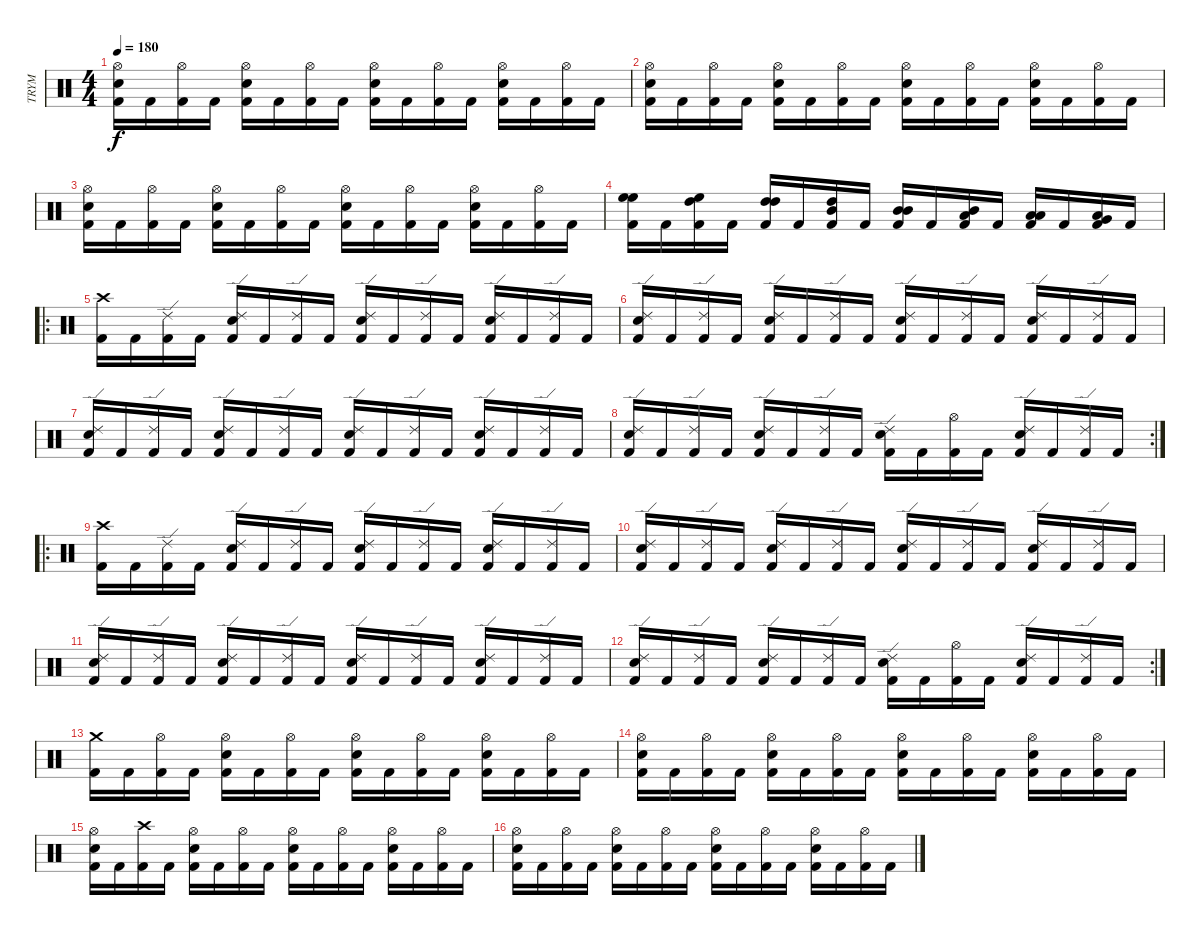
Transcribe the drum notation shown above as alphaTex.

\track ("TRYM" "TRYM") {instrument percussion}
\staff {score}
\articulation defaults
\ts (4 4)
\tempo 180
\clef neutral
\ks c
("Kick (hit) 2" "Hi-Hat (open)" "Electric Snare (hit)").16{dy f} "Kick (hit) 2".16 ("Kick (hit) 2" "Hi-Hat (open)").16 "Kick (hit) 2".16 ("Kick (hit) 2" "Hi-Hat (open)" "Electric Snare (hit)").16 "Kick (hit) 2".16 ("Kick (hit) 2" "Hi-Hat (open)").16 "Kick (hit) 2".16 ("Kick (hit) 2" "Hi-Hat (open)" "Electric Snare (hit)").16 "Kick (hit) 2".16 ("Kick (hit) 2" "Hi-Hat (open)").16 "Kick (hit) 2".16 ("Kick (hit) 2" "Hi-Hat (open)" "Electric Snare (hit)").16 "Kick (hit) 2".16 ("Kick (hit) 2" "Hi-Hat (open)").16 "Kick (hit) 2".16 |
("Kick (hit) 2" "Hi-Hat (open)" "Electric Snare (hit)").16 "Kick (hit) 2".16 ("Kick (hit) 2" "Hi-Hat (open)").16 "Kick (hit) 2".16 ("Kick (hit) 2" "Hi-Hat (open)" "Electric Snare (hit)").16 "Kick (hit) 2".16 ("Kick (hit) 2" "Hi-Hat (open)").16 "Kick (hit) 2".16 ("Kick (hit) 2" "Hi-Hat (open)" "Electric Snare (hit)").16 "Kick (hit) 2".16 ("Kick (hit) 2" "Hi-Hat (open)").16 "Kick (hit) 2".16 ("Kick (hit) 2" "Hi-Hat (open)" "Electric Snare (hit)").16 "Kick (hit) 2".16 ("Kick (hit) 2" "Hi-Hat (open)").16 "Kick (hit) 2".16 |
("Kick (hit) 2" "Hi-Hat (open)" "Electric Snare (hit)").16 "Kick (hit) 2".16 ("Kick (hit) 2" "Hi-Hat (open)").16 "Kick (hit) 2".16 ("Kick (hit) 2" "Hi-Hat (open)" "Electric Snare (hit)").16 "Kick (hit) 2".16 ("Kick (hit) 2" "Hi-Hat (open)").16 "Kick (hit) 2".16 ("Kick (hit) 2" "Hi-Hat (open)" "Electric Snare (hit)").16 "Kick (hit) 2".16 ("Kick (hit) 2" "Hi-Hat (open)").16 "Kick (hit) 2".16 ("Kick (hit) 2" "Hi-Hat (open)" "Electric Snare (hit)").16 "Kick (hit) 2".16 ("Kick (hit) 2" "Hi-Hat (open)").16 "Kick (hit) 2".16 |
("Kick (hit) 2" "High Floor Tom (hit)" "High Floor Tom (hit)").16 "Kick (hit) 2".16 ("Kick (hit) 2" "High Tom (hit)" "High Floor Tom (hit)").16 "Kick (hit) 2".16 ("Kick (hit) 2" "High Tom (hit)" "High Tom (hit)").16 "Kick (hit) 2".16 ("Kick (hit) 2" "Mid Tom (hit)" "High Tom (hit)").16 "Kick (hit) 2".16 ("Kick (hit) 2" "Mid Tom (hit)" "Mid Tom (hit)").16 "Kick (hit) 2".16 ("Kick (hit) 2" "Low Tom (hit)" "Mid Tom (hit)").16 "Kick (hit) 2".16 ("Kick (hit) 2" "Low Tom (hit)" "Low Tom (hit)").16 "Kick (hit) 2".16 ("Kick (hit) 2" "Very Low Tom (hit)" "Low Tom (hit)").16 "Kick (hit) 2".16 |
\ro
("Kick (hit) 2" "Crash high (hit)").16 "Kick (hit) 2".16 ("Kick (hit) 2" "Ride (edge) 2").16 "Kick (hit) 2".16 ("Kick (hit) 2" "Ride (edge) 2" "Electric Snare (hit)").16 "Kick (hit) 2".16 ("Kick (hit) 2" "Ride (edge) 2").16 "Kick (hit) 2".16 ("Kick (hit) 2" "Ride (edge) 2" "Electric Snare (hit)").16 "Kick (hit) 2".16 ("Kick (hit) 2" "Ride (edge) 2").16 "Kick (hit) 2".16 ("Kick (hit) 2" "Ride (edge) 2" "Electric Snare (hit)").16 "Kick (hit) 2".16 ("Kick (hit) 2" "Ride (edge) 2").16 "Kick (hit) 2".16 |
("Kick (hit) 2" "Ride (edge) 2" "Electric Snare (hit)").16 "Kick (hit) 2".16 ("Kick (hit) 2" "Ride (edge) 2").16 "Kick (hit) 2".16 ("Kick (hit) 2" "Ride (edge) 2" "Electric Snare (hit)").16 "Kick (hit) 2".16 ("Kick (hit) 2" "Ride (edge) 2").16 "Kick (hit) 2".16 ("Kick (hit) 2" "Ride (edge) 2" "Electric Snare (hit)").16 "Kick (hit) 2".16 ("Kick (hit) 2" "Ride (edge) 2").16 "Kick (hit) 2".16 ("Kick (hit) 2" "Ride (edge) 2" "Electric Snare (hit)").16 "Kick (hit) 2".16 ("Kick (hit) 2" "Ride (edge) 2").16 "Kick (hit) 2".16 |
("Kick (hit) 2" "Ride (edge) 2" "Electric Snare (hit)").16 "Kick (hit) 2".16 ("Kick (hit) 2" "Ride (edge) 2").16 "Kick (hit) 2".16 ("Kick (hit) 2" "Ride (edge) 2" "Electric Snare (hit)").16 "Kick (hit) 2".16 ("Kick (hit) 2" "Ride (edge) 2").16 "Kick (hit) 2".16 ("Kick (hit) 2" "Ride (edge) 2" "Electric Snare (hit)").16 "Kick (hit) 2".16 ("Kick (hit) 2" "Ride (edge) 2").16 "Kick (hit) 2".16 ("Kick (hit) 2" "Ride (edge) 2" "Electric Snare (hit)").16 "Kick (hit) 2".16 ("Kick (hit) 2" "Ride (edge) 2").16 "Kick (hit) 2".16 |
\rc 2
("Kick (hit) 2" "Ride (edge) 2" "Electric Snare (hit)").16 "Kick (hit) 2".16 ("Kick (hit) 2" "Ride (edge) 2").16 "Kick (hit) 2".16 ("Kick (hit) 2" "Ride (edge) 2" "Electric Snare (hit)").16 "Kick (hit) 2".16 ("Kick (hit) 2" "Ride (edge) 2").16 "Kick (hit) 2".16 ("Kick (hit) 2" "Ride (edge) 2" "Electric Snare (hit)").16 "Kick (hit) 2".16 ("Kick (hit) 2" "Hi-Hat (open)").16 "Kick (hit) 2".16 ("Kick (hit) 2" "Ride (edge) 2" "Electric Snare (hit)").16 "Kick (hit) 2".16 ("Kick (hit) 2" "Ride (edge) 2").16 "Kick (hit) 2".16 |
\ro
("Kick (hit) 2" "Crash high (hit)").16 "Kick (hit) 2".16 ("Kick (hit) 2" "Ride (edge) 2").16 "Kick (hit) 2".16 ("Kick (hit) 2" "Ride (edge) 2" "Electric Snare (hit)").16 "Kick (hit) 2".16 ("Kick (hit) 2" "Ride (edge) 2").16 "Kick (hit) 2".16 ("Kick (hit) 2" "Ride (edge) 2" "Electric Snare (hit)").16 "Kick (hit) 2".16 ("Kick (hit) 2" "Ride (edge) 2").16 "Kick (hit) 2".16 ("Kick (hit) 2" "Ride (edge) 2" "Electric Snare (hit)").16 "Kick (hit) 2".16 ("Kick (hit) 2" "Ride (edge) 2").16 "Kick (hit) 2".16 |
("Kick (hit) 2" "Ride (edge) 2" "Electric Snare (hit)").16 "Kick (hit) 2".16 ("Kick (hit) 2" "Ride (edge) 2").16 "Kick (hit) 2".16 ("Kick (hit) 2" "Ride (edge) 2" "Electric Snare (hit)").16 "Kick (hit) 2".16 ("Kick (hit) 2" "Ride (edge) 2").16 "Kick (hit) 2".16 ("Kick (hit) 2" "Ride (edge) 2" "Electric Snare (hit)").16 "Kick (hit) 2".16 ("Kick (hit) 2" "Ride (edge) 2").16 "Kick (hit) 2".16 ("Kick (hit) 2" "Ride (edge) 2" "Electric Snare (hit)").16 "Kick (hit) 2".16 ("Kick (hit) 2" "Ride (edge) 2").16 "Kick (hit) 2".16 |
("Kick (hit) 2" "Ride (edge) 2" "Electric Snare (hit)").16 "Kick (hit) 2".16 ("Kick (hit) 2" "Ride (edge) 2").16 "Kick (hit) 2".16 ("Kick (hit) 2" "Ride (edge) 2" "Electric Snare (hit)").16 "Kick (hit) 2".16 ("Kick (hit) 2" "Ride (edge) 2").16 "Kick (hit) 2".16 ("Kick (hit) 2" "Ride (edge) 2" "Electric Snare (hit)").16 "Kick (hit) 2".16 ("Kick (hit) 2" "Ride (edge) 2").16 "Kick (hit) 2".16 ("Kick (hit) 2" "Ride (edge) 2" "Electric Snare (hit)").16 "Kick (hit) 2".16 ("Kick (hit) 2" "Ride (edge) 2").16 "Kick (hit) 2".16 |
\rc 2
("Kick (hit) 2" "Ride (edge) 2" "Electric Snare (hit)").16 "Kick (hit) 2".16 ("Kick (hit) 2" "Ride (edge) 2").16 "Kick (hit) 2".16 ("Kick (hit) 2" "Ride (edge) 2" "Electric Snare (hit)").16 "Kick (hit) 2".16 ("Kick (hit) 2" "Ride (edge) 2").16 "Kick (hit) 2".16 ("Kick (hit) 2" "Ride (edge) 2" "Electric Snare (hit)").16 "Kick (hit) 2".16 ("Kick (hit) 2" "Hi-Hat (open)").16 "Kick (hit) 2".16 ("Kick (hit) 2" "Ride (edge) 2" "Electric Snare (hit)").16 "Kick (hit) 2".16 ("Kick (hit) 2" "Ride (edge) 2").16 "Kick (hit) 2".16 |
("Kick (hit) 2" "Crash medium (hit)").16 "Kick (hit) 2".16 ("Kick (hit) 2" "Hi-Hat (open)").16 "Kick (hit) 2".16 ("Kick (hit) 2" "Hi-Hat (open)" "Electric Snare (hit)").16 "Kick (hit) 2".16 ("Kick (hit) 2" "Hi-Hat (open)").16 "Kick (hit) 2".16 ("Kick (hit) 2" "Hi-Hat (open)" "Electric Snare (hit)").16 "Kick (hit) 2".16 ("Kick (hit) 2" "Hi-Hat (open)").16 "Kick (hit) 2".16 ("Kick (hit) 2" "Hi-Hat (open)" "Electric Snare (hit)").16 "Kick (hit) 2".16 ("Kick (hit) 2" "Hi-Hat (open)").16 "Kick (hit) 2".16 |
("Kick (hit) 2" "Hi-Hat (open)" "Electric Snare (hit)").16 "Kick (hit) 2".16 ("Kick (hit) 2" "Hi-Hat (open)").16 "Kick (hit) 2".16 ("Kick (hit) 2" "Hi-Hat (open)" "Electric Snare (hit)").16 "Kick (hit) 2".16 ("Kick (hit) 2" "Hi-Hat (open)").16 "Kick (hit) 2".16 ("Kick (hit) 2" "Hi-Hat (open)" "Electric Snare (hit)").16 "Kick (hit) 2".16 ("Kick (hit) 2" "Hi-Hat (open)").16 "Kick (hit) 2".16 ("Kick (hit) 2" "Hi-Hat (open)" "Electric Snare (hit)").16 "Kick (hit) 2".16 ("Kick (hit) 2" "Hi-Hat (open)").16 "Kick (hit) 2".16 |
("Kick (hit) 2" "Hi-Hat (open)" "Electric Snare (hit)").16 "Kick (hit) 2".16 ("Kick (hit) 2" "Crash high (hit)").16 "Kick (hit) 2".16 ("Kick (hit) 2" "Hi-Hat (open)" "Electric Snare (hit)").16 "Kick (hit) 2".16 ("Kick (hit) 2" "Hi-Hat (open)").16 "Kick (hit) 2".16 ("Kick (hit) 2" "Hi-Hat (open)" "Electric Snare (hit)").16 "Kick (hit) 2".16 ("Kick (hit) 2" "Hi-Hat (open)").16 "Kick (hit) 2".16 ("Kick (hit) 2" "Hi-Hat (open)" "Electric Snare (hit)").16 "Kick (hit) 2".16 ("Kick (hit) 2" "Hi-Hat (open)").16 "Kick (hit) 2".16 |
("Kick (hit) 2" "Hi-Hat (open)" "Electric Snare (hit)").16 "Kick (hit) 2".16 ("Kick (hit) 2" "Hi-Hat (open)").16 "Kick (hit) 2".16 ("Kick (hit) 2" "Hi-Hat (open)" "Electric Snare (hit)").16 "Kick (hit) 2".16 ("Kick (hit) 2" "Hi-Hat (open)").16 "Kick (hit) 2".16 ("Kick (hit) 2" "Hi-Hat (open)" "Electric Snare (hit)").16 "Kick (hit) 2".16 ("Kick (hit) 2" "Hi-Hat (open)").16 "Kick (hit) 2".16 ("Kick (hit) 2" "Hi-Hat (open)" "Electric Snare (hit)").16 "Kick (hit) 2".16 ("Kick (hit) 2" "Hi-Hat (open)").16 "Kick (hit) 2".16
